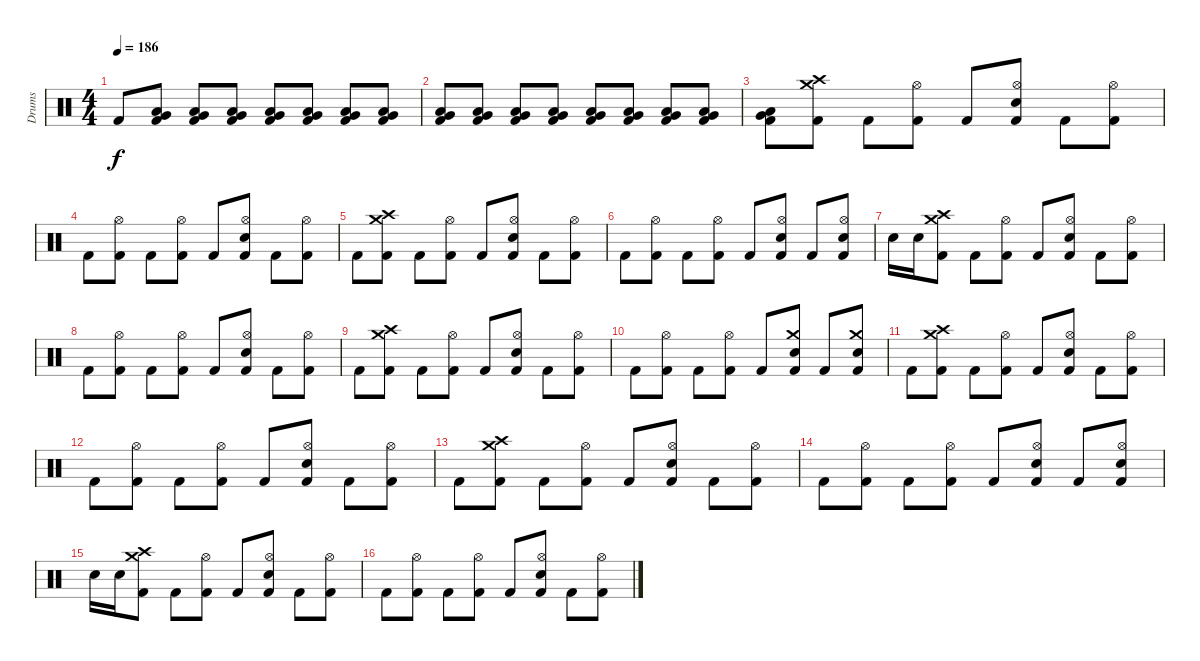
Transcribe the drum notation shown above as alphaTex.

\track ("Drums" "Drums") {instrument percussion bank 177}
\staff {score}
\articulation defaults
\ts (4 4)
\tempo 186
\clef neutral
\ks c "Kick (hit) 2".8{dy f}
("Very Low Tom (hit)" "Low Floor Tom (hit)" "Kick (hit) 2").8 ("Very Low Tom (hit)" "Low Floor Tom (hit)" "Kick (hit) 2").8 ("Very Low Tom (hit)" "Low Floor Tom (hit)" "Kick (hit) 2").8 ("Very Low Tom (hit)" "Low Floor Tom (hit)" "Kick (hit) 2").8 ("Very Low Tom (hit)" "Low Floor Tom (hit)" "Kick (hit) 2").8 ("Very Low Tom (hit)" "Low Floor Tom (hit)" "Kick (hit) 2").8 ("Very Low Tom (hit)" "Low Floor Tom (hit)" "Kick (hit) 2").8 |
("Very Low Tom (hit)" "Low Floor Tom (hit)" "Kick (hit) 2").8 ("Very Low Tom (hit)" "Low Floor Tom (hit)" "Kick (hit) 2").8 ("Very Low Tom (hit)" "Low Floor Tom (hit)" "Kick (hit) 2").8 ("Very Low Tom (hit)" "Low Floor Tom (hit)" "Kick (hit) 2").8 ("Very Low Tom (hit)" "Low Floor Tom (hit)" "Kick (hit) 2").8 ("Very Low Tom (hit)" "Low Floor Tom (hit)" "Kick (hit) 2").8 ("Very Low Tom (hit)" "Low Floor Tom (hit)" "Kick (hit) 2").8 ("Very Low Tom (hit)" "Low Floor Tom (hit)" "Kick (hit) 2").8 |
("Very Low Tom (hit)" "Low Floor Tom (hit)" "Kick (hit) 2").8 ("Crash high (hit)" "Crash medium (hit)" "Kick (hit) 2").8 "Kick (hit) 2".8 ("Hi-Hat (open)" "Kick (hit) 2").8 "Kick (hit) 2".8 ("Hi-Hat (open)" "Snare (hit) 2" "Kick (hit) 2").8 "Kick (hit) 2".8 ("Hi-Hat (open)" "Kick (hit) 2").8 |
"Kick (hit) 2".8 ("Hi-Hat (open)" "Kick (hit) 2").8 "Kick (hit) 2".8 ("Hi-Hat (open)" "Kick (hit) 2").8 "Kick (hit) 2".8 ("Hi-Hat (open)" "Snare (hit) 2" "Kick (hit) 2").8 "Kick (hit) 2".8 ("Hi-Hat (open)" "Kick (hit) 2").8 |
"Kick (hit) 2".8 ("Crash high (hit)" "Crash medium (hit)" "Kick (hit) 2").8 "Kick (hit) 2".8 ("Hi-Hat (open)" "Kick (hit) 2").8 "Kick (hit) 2".8 ("Hi-Hat (open)" "Snare (hit) 2" "Kick (hit) 2").8 "Kick (hit) 2".8 ("Hi-Hat (open)" "Kick (hit) 2").8 |
"Kick (hit) 2".8 ("Hi-Hat (open)" "Kick (hit) 2").8 "Kick (hit) 2".8 ("Hi-Hat (open)" "Kick (hit) 2").8 "Kick (hit) 2".8 ("Hi-Hat (open)" "Snare (hit) 2" "Kick (hit) 2").8 "Kick (hit) 2".8 ("Hi-Hat (open)" "Snare (hit) 2" "Kick (hit) 2").8 |
"Snare (hit) 2".16 "Snare (hit) 2".16 ("Crash high (hit)" "Crash medium (hit)" "Kick (hit) 2").8 "Kick (hit) 2".8 ("Hi-Hat (open)" "Kick (hit) 2").8 "Kick (hit) 2".8 ("Hi-Hat (open)" "Snare (hit) 2" "Kick (hit) 2").8 "Kick (hit) 2".8 ("Hi-Hat (open)" "Kick (hit) 2").8 |
"Kick (hit) 2".8 ("Hi-Hat (open)" "Kick (hit) 2").8 "Kick (hit) 2".8 ("Hi-Hat (open)" "Kick (hit) 2").8 "Kick (hit) 2".8 ("Hi-Hat (open)" "Snare (hit) 2" "Kick (hit) 2").8 "Kick (hit) 2".8 ("Hi-Hat (open)" "Kick (hit) 2").8 |
"Kick (hit) 2".8 ("Crash high (hit)" "Crash medium (hit)" "Kick (hit) 2").8 "Kick (hit) 2".8 ("Hi-Hat (open)" "Kick (hit) 2").8 "Kick (hit) 2".8 ("Hi-Hat (open)" "Snare (hit) 2" "Kick (hit) 2").8 "Kick (hit) 2".8 ("Hi-Hat (open)" "Kick (hit) 2").8 |
"Kick (hit) 2".8 ("Hi-Hat (open)" "Kick (hit) 2").8 "Kick (hit) 2".8 ("Hi-Hat (open)" "Kick (hit) 2").8 "Kick (hit) 2".8 ("Crash medium (hit)" "Snare (hit) 2" "Kick (hit) 2").8 "Kick (hit) 2".8 ("Crash medium (hit)" "Snare (hit) 2" "Kick (hit) 2").8 |
"Kick (hit) 2".8 ("Crash high (hit)" "Crash medium (hit)" "Kick (hit) 2").8 "Kick (hit) 2".8 ("Hi-Hat (open)" "Kick (hit) 2").8 "Kick (hit) 2".8 ("Hi-Hat (open)" "Snare (hit) 2" "Kick (hit) 2").8 "Kick (hit) 2".8 ("Hi-Hat (open)" "Kick (hit) 2").8 |
"Kick (hit) 2".8 ("Hi-Hat (open)" "Kick (hit) 2").8 "Kick (hit) 2".8 ("Hi-Hat (open)" "Kick (hit) 2").8 "Kick (hit) 2".8 ("Hi-Hat (open)" "Snare (hit) 2" "Kick (hit) 2").8 "Kick (hit) 2".8 ("Hi-Hat (open)" "Kick (hit) 2").8 |
"Kick (hit) 2".8 ("Crash high (hit)" "Crash medium (hit)" "Kick (hit) 2").8 "Kick (hit) 2".8 ("Hi-Hat (open)" "Kick (hit) 2").8 "Kick (hit) 2".8 ("Hi-Hat (open)" "Snare (hit) 2" "Kick (hit) 2").8 "Kick (hit) 2".8 ("Hi-Hat (open)" "Kick (hit) 2").8 |
"Kick (hit) 2".8 ("Hi-Hat (open)" "Kick (hit) 2").8 "Kick (hit) 2".8 ("Hi-Hat (open)" "Kick (hit) 2").8 "Kick (hit) 2".8 ("Hi-Hat (open)" "Snare (hit) 2" "Kick (hit) 2").8 "Kick (hit) 2".8 ("Hi-Hat (open)" "Snare (hit) 2" "Kick (hit) 2").8 |
"Snare (hit) 2".16 "Snare (hit) 2".16 ("Crash high (hit)" "Crash medium (hit)" "Kick (hit) 2").8 "Kick (hit) 2".8 ("Hi-Hat (open)" "Kick (hit) 2").8 "Kick (hit) 2".8 ("Hi-Hat (open)" "Snare (hit) 2" "Kick (hit) 2").8 "Kick (hit) 2".8 ("Hi-Hat (open)" "Kick (hit) 2").8 |
"Kick (hit) 2".8 ("Hi-Hat (open)" "Kick (hit) 2").8 "Kick (hit) 2".8 ("Hi-Hat (open)" "Kick (hit) 2").8 "Kick (hit) 2".8 ("Hi-Hat (open)" "Snare (hit) 2" "Kick (hit) 2").8 "Kick (hit) 2".8 ("Hi-Hat (open)" "Kick (hit) 2").8
